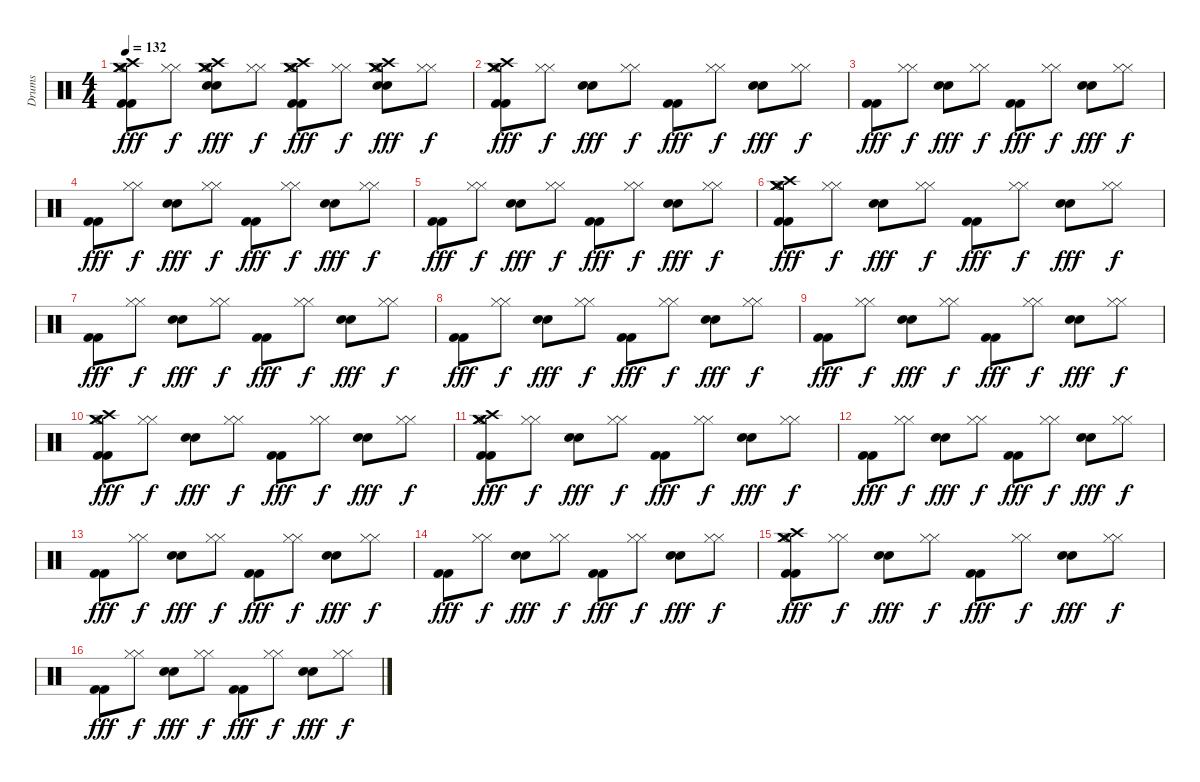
\track ("Drums" "Drums") {instrument percussion}
\staff {score}
\articulation defaults
\ts (4 4)
\tempo 132
\clef neutral
\ks c
("Kick (hit) 2" "Kick (hit) 2" "Crash high (hit)" "Hi-Hat (open)" "Crash medium (hit)" "Crash medium (hit)").8{dy fff} ("Hi-Hat (closed)" "Hi-Hat (closed)").8{dy f} ("Snare (hit) 2" "Snare (hit) 2" "Crash high (hit)" "Hi-Hat (open)" "Crash medium (hit)" "Crash medium (hit)").8{dy fff} ("Hi-Hat (closed)" "Hi-Hat (closed)").8{dy f} ("Kick (hit) 2" "Kick (hit) 2" "Crash high (hit)" "Hi-Hat (open)" "Crash medium (hit)" "Crash medium (hit)").8{dy fff} ("Hi-Hat (closed)" "Hi-Hat (closed)").8{dy f} ("Snare (hit) 2" "Snare (hit) 2" "Crash high (hit)" "Hi-Hat (open)" "Crash medium (hit)" "Crash medium (hit)").8{dy fff} ("Hi-Hat (closed)" "Hi-Hat (closed)").8{dy f} |
("Kick (hit) 2" "Kick (hit) 2" "Crash high (hit)" "Hi-Hat (open)" "Crash medium (hit)" "Crash medium (hit)").8{dy fff} ("Hi-Hat (closed)" "Hi-Hat (closed)").8{dy f} ("Snare (hit) 2" "Snare (hit) 2").8{dy fff} ("Hi-Hat (closed)" "Hi-Hat (closed)").8{dy f} ("Kick (hit) 2" "Kick (hit) 2").8{dy fff} ("Hi-Hat (closed)" "Hi-Hat (closed)").8{dy f} ("Snare (hit) 2" "Snare (hit) 2").8{dy fff} ("Hi-Hat (closed)" "Hi-Hat (closed)").8{dy f} |
("Kick (hit) 2" "Kick (hit) 2").8{dy fff} ("Hi-Hat (closed)" "Hi-Hat (closed)").8{dy f} ("Snare (hit) 2" "Snare (hit) 2").8{dy fff} ("Hi-Hat (closed)" "Hi-Hat (closed)").8{dy f} ("Kick (hit) 2" "Kick (hit) 2").8{dy fff} ("Hi-Hat (closed)" "Hi-Hat (closed)").8{dy f} ("Snare (hit) 2" "Snare (hit) 2").8{dy fff} ("Hi-Hat (closed)" "Hi-Hat (closed)").8{dy f} |
("Kick (hit) 2" "Kick (hit) 2").8{dy fff} ("Hi-Hat (closed)" "Hi-Hat (closed)").8{dy f} ("Snare (hit) 2" "Snare (hit) 2").8{dy fff} ("Hi-Hat (closed)" "Hi-Hat (closed)").8{dy f} ("Kick (hit) 2" "Kick (hit) 2").8{dy fff} ("Hi-Hat (closed)" "Hi-Hat (closed)").8{dy f} ("Snare (hit) 2" "Snare (hit) 2").8{dy fff} ("Hi-Hat (closed)" "Hi-Hat (closed)").8{dy f} |
("Kick (hit) 2" "Kick (hit) 2").8{dy fff} ("Hi-Hat (closed)" "Hi-Hat (closed)").8{dy f} ("Snare (hit) 2" "Snare (hit) 2").8{dy fff} ("Hi-Hat (closed)" "Hi-Hat (closed)").8{dy f} ("Kick (hit) 2" "Kick (hit) 2").8{dy fff} ("Hi-Hat (closed)" "Hi-Hat (closed)").8{dy f} ("Snare (hit) 2" "Snare (hit) 2").8{dy fff} ("Hi-Hat (closed)" "Hi-Hat (closed)").8{dy f} |
("Kick (hit) 2" "Kick (hit) 2" "Crash high (hit)" "Hi-Hat (open)" "Crash medium (hit)" "Crash medium (hit)").8{dy fff} ("Hi-Hat (closed)" "Hi-Hat (closed)").8{dy f} ("Snare (hit) 2" "Snare (hit) 2").8{dy fff} ("Hi-Hat (closed)" "Hi-Hat (closed)").8{dy f} ("Kick (hit) 2" "Kick (hit) 2").8{dy fff} ("Hi-Hat (closed)" "Hi-Hat (closed)").8{dy f} ("Snare (hit) 2" "Snare (hit) 2").8{dy fff} ("Hi-Hat (closed)" "Hi-Hat (closed)").8{dy f} |
("Kick (hit) 2" "Kick (hit) 2").8{dy fff} ("Hi-Hat (closed)" "Hi-Hat (closed)").8{dy f} ("Snare (hit) 2" "Snare (hit) 2").8{dy fff} ("Hi-Hat (closed)" "Hi-Hat (closed)").8{dy f} ("Kick (hit) 2" "Kick (hit) 2").8{dy fff} ("Hi-Hat (closed)" "Hi-Hat (closed)").8{dy f} ("Snare (hit) 2" "Snare (hit) 2").8{dy fff} ("Hi-Hat (closed)" "Hi-Hat (closed)").8{dy f} |
("Kick (hit) 2" "Kick (hit) 2").8{dy fff} ("Hi-Hat (closed)" "Hi-Hat (closed)").8{dy f} ("Snare (hit) 2" "Snare (hit) 2").8{dy fff} ("Hi-Hat (closed)" "Hi-Hat (closed)").8{dy f} ("Kick (hit) 2" "Kick (hit) 2").8{dy fff} ("Hi-Hat (closed)" "Hi-Hat (closed)").8{dy f} ("Snare (hit) 2" "Snare (hit) 2").8{dy fff} ("Hi-Hat (closed)" "Hi-Hat (closed)").8{dy f} |
("Kick (hit) 2" "Kick (hit) 2").8{dy fff} ("Hi-Hat (closed)" "Hi-Hat (closed)").8{dy f} ("Snare (hit) 2" "Snare (hit) 2").8{dy fff} ("Hi-Hat (closed)" "Hi-Hat (closed)").8{dy f} ("Kick (hit) 2" "Kick (hit) 2").8{dy fff} ("Hi-Hat (closed)" "Hi-Hat (closed)").8{dy f} ("Snare (hit) 2" "Snare (hit) 2").8{dy fff} ("Hi-Hat (closed)" "Hi-Hat (closed)").8{dy f} |
("Kick (hit) 2" "Kick (hit) 2" "Crash high (hit)" "Hi-Hat (open)" "Crash medium (hit)" "Crash medium (hit)").8{dy fff} ("Hi-Hat (closed)" "Hi-Hat (closed)").8{dy f} ("Snare (hit) 2" "Snare (hit) 2").8{dy fff} ("Hi-Hat (closed)" "Hi-Hat (closed)").8{dy f} ("Kick (hit) 2" "Kick (hit) 2").8{dy fff} ("Hi-Hat (closed)" "Hi-Hat (closed)").8{dy f} ("Snare (hit) 2" "Snare (hit) 2").8{dy fff} ("Hi-Hat (closed)" "Hi-Hat (closed)").8{dy f} |
("Kick (hit) 2" "Kick (hit) 2" "Crash high (hit)" "Hi-Hat (open)" "Crash medium (hit)" "Crash medium (hit)").8{dy fff} ("Hi-Hat (closed)" "Hi-Hat (closed)").8{dy f} ("Snare (hit) 2" "Snare (hit) 2").8{dy fff} ("Hi-Hat (closed)" "Hi-Hat (closed)").8{dy f} ("Kick (hit) 2" "Kick (hit) 2").8{dy fff} ("Hi-Hat (closed)" "Hi-Hat (closed)").8{dy f} ("Snare (hit) 2" "Snare (hit) 2").8{dy fff} ("Hi-Hat (closed)" "Hi-Hat (closed)").8{dy f} |
("Kick (hit) 2" "Kick (hit) 2").8{dy fff} ("Hi-Hat (closed)" "Hi-Hat (closed)").8{dy f} ("Snare (hit) 2" "Snare (hit) 2").8{dy fff} ("Hi-Hat (closed)" "Hi-Hat (closed)").8{dy f} ("Kick (hit) 2" "Kick (hit) 2").8{dy fff} ("Hi-Hat (closed)" "Hi-Hat (closed)").8{dy f} ("Snare (hit) 2" "Snare (hit) 2").8{dy fff} ("Hi-Hat (closed)" "Hi-Hat (closed)").8{dy f} |
("Kick (hit) 2" "Kick (hit) 2").8{dy fff} ("Hi-Hat (closed)" "Hi-Hat (closed)").8{dy f} ("Snare (hit) 2" "Snare (hit) 2").8{dy fff} ("Hi-Hat (closed)" "Hi-Hat (closed)").8{dy f} ("Kick (hit) 2" "Kick (hit) 2").8{dy fff} ("Hi-Hat (closed)" "Hi-Hat (closed)").8{dy f} ("Snare (hit) 2" "Snare (hit) 2").8{dy fff} ("Hi-Hat (closed)" "Hi-Hat (closed)").8{dy f} |
("Kick (hit) 2" "Kick (hit) 2").8{dy fff} ("Hi-Hat (closed)" "Hi-Hat (closed)").8{dy f} ("Snare (hit) 2" "Snare (hit) 2").8{dy fff} ("Hi-Hat (closed)" "Hi-Hat (closed)").8{dy f} ("Kick (hit) 2" "Kick (hit) 2").8{dy fff} ("Hi-Hat (closed)" "Hi-Hat (closed)").8{dy f} ("Snare (hit) 2" "Snare (hit) 2").8{dy fff} ("Hi-Hat (closed)" "Hi-Hat (closed)").8{dy f} |
("Kick (hit) 2" "Kick (hit) 2" "Crash high (hit)" "Hi-Hat (open)" "Crash medium (hit)" "Crash medium (hit)").8{dy fff} ("Hi-Hat (closed)" "Hi-Hat (closed)").8{dy f} ("Snare (hit) 2" "Snare (hit) 2").8{dy fff} ("Hi-Hat (closed)" "Hi-Hat (closed)").8{dy f} ("Kick (hit) 2" "Kick (hit) 2").8{dy fff} ("Hi-Hat (closed)" "Hi-Hat (closed)").8{dy f} ("Snare (hit) 2" "Snare (hit) 2").8{dy fff} ("Hi-Hat (closed)" "Hi-Hat (closed)").8{dy f} |
("Kick (hit) 2" "Kick (hit) 2").8{dy fff} ("Hi-Hat (closed)" "Hi-Hat (closed)").8{dy f} ("Snare (hit) 2" "Snare (hit) 2").8{dy fff} ("Hi-Hat (closed)" "Hi-Hat (closed)").8{dy f} ("Kick (hit) 2" "Kick (hit) 2").8{dy fff} ("Hi-Hat (closed)" "Hi-Hat (closed)").8{dy f} ("Snare (hit) 2" "Snare (hit) 2").8{dy fff} ("Hi-Hat (closed)" "Hi-Hat (closed)").8{dy f}
